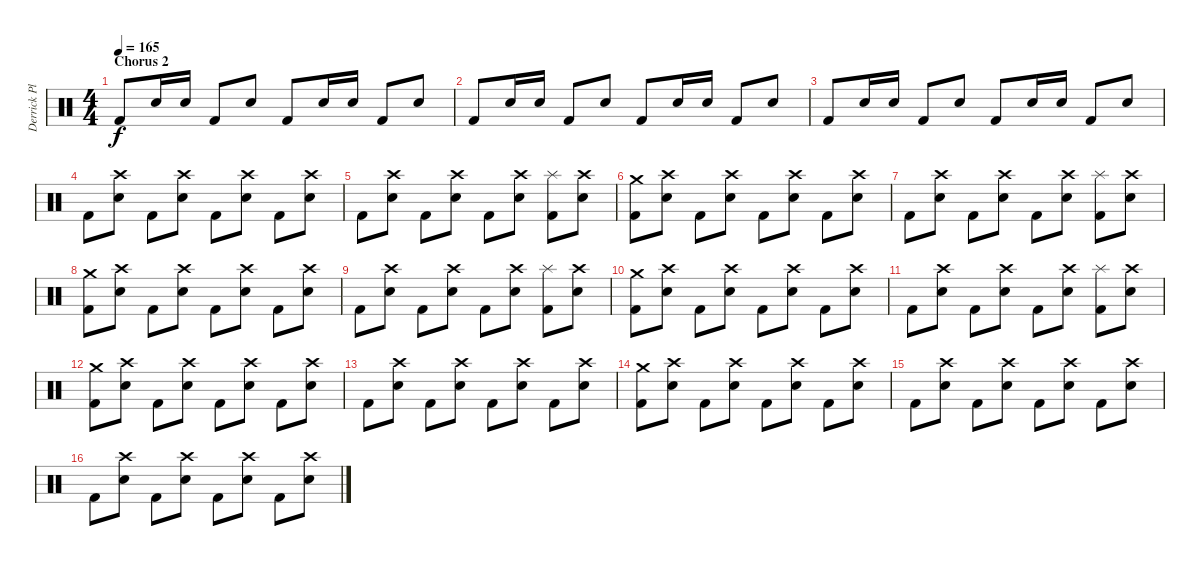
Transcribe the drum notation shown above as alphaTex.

\track ("Derrick Plourde (R.I.P.)" "Derrick Pl") {instrument percussion}
\staff {score}
\articulation defaults
\ts (4 4)
\section ("" "Chorus 2")
\tempo 165
\clef neutral
\ks c "Kick (hit) 2".8{dy f} "Electric Snare (hit)".16 "Electric Snare (hit)".16 "Kick (hit) 2".8 "Electric Snare (hit)".8 "Kick (hit) 2".8 "Electric Snare (hit)".16 "Electric Snare (hit)".16 "Kick (hit) 2".8 "Electric Snare (hit)".8
|
"Kick (hit) 2".8 "Electric Snare (hit)".16 "Electric Snare (hit)".16 "Kick (hit) 2".8 "Electric Snare (hit)".8 "Kick (hit) 2".8 "Electric Snare (hit)".16 "Electric Snare (hit)".16 "Kick (hit) 2".8 "Electric Snare (hit)".8 |
"Kick (hit) 2".8 "Electric Snare (hit)".16 "Electric Snare (hit)".16 "Kick (hit) 2".8 "Electric Snare (hit)".8 "Kick (hit) 2".8 "Electric Snare (hit)".16 "Electric Snare (hit)".16 "Kick (hit) 2".8 "Electric Snare (hit)".8 |
"Kick (hit) 2".8 ("Electric Snare (hit)" "Crash high (hit)").8 "Kick (hit) 2".8 ("Electric Snare (hit)" "Crash high (hit)").8 "Kick (hit) 2".8 ("Electric Snare (hit)" "Crash high (hit)").8 "Kick (hit) 2".8 ("Electric Snare (hit)" "Crash high (hit)").8 |
"Kick (hit) 2".8 ("Electric Snare (hit)" "Crash high (hit)").8 "Kick (hit) 2".8 ("Electric Snare (hit)" "Crash high (hit)").8 "Kick (hit) 2".8 ("Electric Snare (hit)" "Crash high (hit)").8 ("Kick (hit) 2" "Splash (hit)").8 ("Electric Snare (hit)" "Crash high (hit)").8 |
("Kick (hit) 2" "Crash medium (hit)").8 ("Electric Snare (hit)" "Crash high (hit)").8 "Kick (hit) 2".8 ("Electric Snare (hit)" "Crash high (hit)").8 "Kick (hit) 2".8 ("Electric Snare (hit)" "Crash high (hit)").8 "Kick (hit) 2".8 ("Electric Snare (hit)" "Crash high (hit)").8 |
"Kick (hit) 2".8 ("Electric Snare (hit)" "Crash high (hit)").8 "Kick (hit) 2".8 ("Electric Snare (hit)" "Crash high (hit)").8 "Kick (hit) 2".8 ("Electric Snare (hit)" "Crash high (hit)").8 ("Kick (hit) 2" "Splash (hit)").8 ("Electric Snare (hit)" "Crash high (hit)").8 |
("Kick (hit) 2" "Crash medium (hit)").8 ("Electric Snare (hit)" "Crash high (hit)").8 "Kick (hit) 2".8 ("Electric Snare (hit)" "Crash high (hit)").8 "Kick (hit) 2".8 ("Electric Snare (hit)" "Crash high (hit)").8 "Kick (hit) 2".8 ("Electric Snare (hit)" "Crash high (hit)").8 |
"Kick (hit) 2".8 ("Electric Snare (hit)" "Crash high (hit)").8 "Kick (hit) 2".8 ("Electric Snare (hit)" "Crash high (hit)").8 "Kick (hit) 2".8 ("Electric Snare (hit)" "Crash high (hit)").8 ("Kick (hit) 2" "Splash (hit)").8 ("Electric Snare (hit)" "Crash high (hit)").8 |
("Kick (hit) 2" "Crash medium (hit)").8 ("Electric Snare (hit)" "Crash high (hit)").8 "Kick (hit) 2".8 ("Electric Snare (hit)" "Crash high (hit)").8 "Kick (hit) 2".8 ("Electric Snare (hit)" "Crash high (hit)").8 "Kick (hit) 2".8 ("Electric Snare (hit)" "Crash high (hit)").8 |
"Kick (hit) 2".8 ("Electric Snare (hit)" "Crash high (hit)").8 "Kick (hit) 2".8 ("Electric Snare (hit)" "Crash high (hit)").8 "Kick (hit) 2".8 ("Electric Snare (hit)" "Crash high (hit)").8 ("Kick (hit) 2" "Splash (hit)").8 ("Electric Snare (hit)" "Crash high (hit)").8 |
("Kick (hit) 2" "Crash medium (hit)").8 ("Electric Snare (hit)" "Crash high (hit)").8 "Kick (hit) 2".8 ("Electric Snare (hit)" "Crash high (hit)").8 "Kick (hit) 2".8 ("Electric Snare (hit)" "Crash high (hit)").8 "Kick (hit) 2".8 ("Electric Snare (hit)" "Crash high (hit)").8 |
"Kick (hit) 2".8 ("Electric Snare (hit)" "Crash high (hit)").8 "Kick (hit) 2".8 ("Electric Snare (hit)" "Crash high (hit)").8 "Kick (hit) 2".8 ("Electric Snare (hit)" "Crash high (hit)").8 "Kick (hit) 2".8 ("Electric Snare (hit)" "Crash high (hit)").8 |
("Kick (hit) 2" "Crash medium (hit)").8 ("Electric Snare (hit)" "Crash high (hit)").8 "Kick (hit) 2".8 ("Electric Snare (hit)" "Crash high (hit)").8 "Kick (hit) 2".8 ("Electric Snare (hit)" "Crash high (hit)").8 "Kick (hit) 2".8 ("Electric Snare (hit)" "Crash high (hit)").8 |
"Kick (hit) 2".8 ("Electric Snare (hit)" "Crash high (hit)").8 "Kick (hit) 2".8 ("Electric Snare (hit)" "Crash high (hit)").8 "Kick (hit) 2".8 ("Electric Snare (hit)" "Crash high (hit)").8 "Kick (hit) 2".8 ("Electric Snare (hit)" "Crash high (hit)").8 |
"Kick (hit) 2".8 ("Electric Snare (hit)" "Crash high (hit)").8 "Kick (hit) 2".8 ("Electric Snare (hit)" "Crash high (hit)").8 "Kick (hit) 2".8 ("Electric Snare (hit)" "Crash high (hit)").8 "Kick (hit) 2".8 ("Electric Snare (hit)" "Crash high (hit)").8
